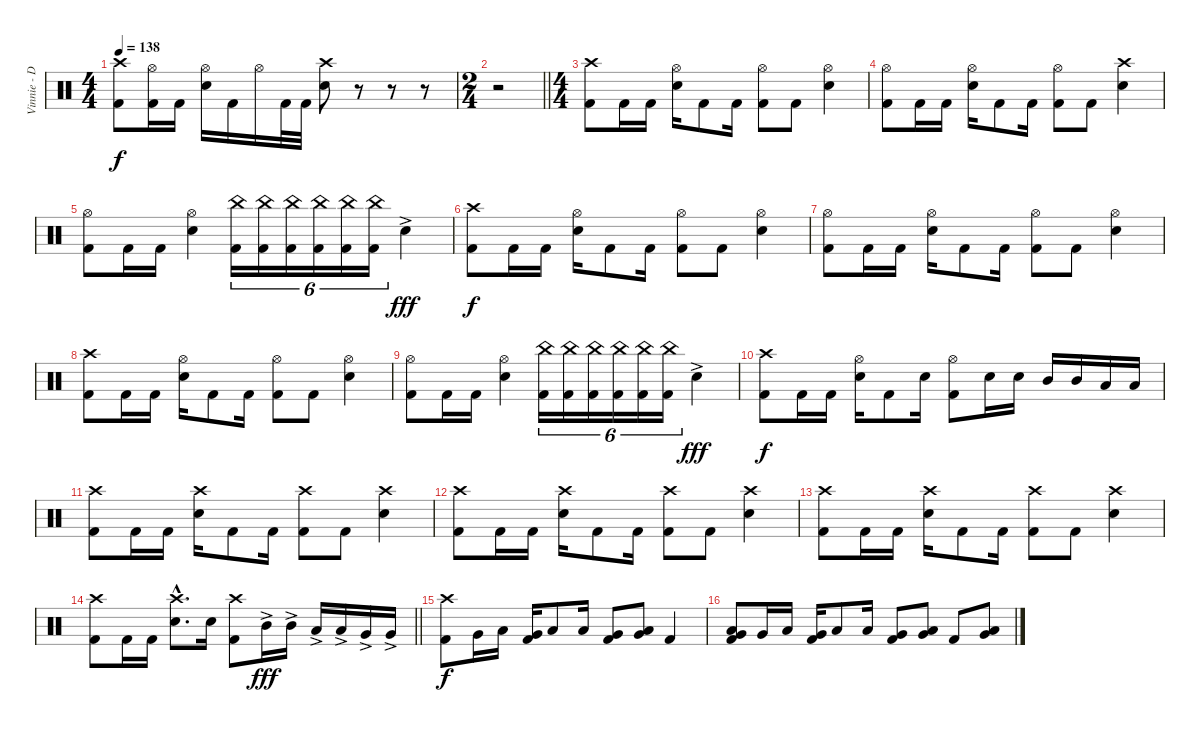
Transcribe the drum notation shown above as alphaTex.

\track ("Vinnie - Drums" "Vinnie - D") {instrument percussion}
\staff {score}
\articulation defaults
\ts (4 4)
\tempo 138
\clef neutral
\ks c
("Crash high (hit)" "Kick (hit) 2").8{dy f} ("Hi-Hat (open)" "Kick (hit) 2").16 "Kick (hit) 2".16 ("Hi-Hat (open)" "Snare (hit) 2").16 "Kick (hit) 2".16 "Hi-Hat (open)".16 "Kick (hit) 2".32 "Kick (hit) 2".32 ("Crash high (hit)" "Snare (hit) 2").8 r.8{volume 0} r.8 r.8{volume 16} |
\ts (2 4)
\barLineRight lightlight
r.2 |
\ts (4 4)
("Crash high (hit)" "Kick (hit) 2").8 "Kick (hit) 2".16 "Kick (hit) 2".16 ("Hi-Hat (open)" "Snare (hit) 2").16 "Kick (hit) 2".8 "Kick (hit) 2".16 ("Hi-Hat (open)" "Kick (hit) 2").8 "Kick (hit) 2".8 ("Hi-Hat (open)" "Snare (hit) 2").4 |
("Hi-Hat (open)" "Kick (hit) 2").8 "Kick (hit) 2".16 "Kick (hit) 2".16 ("Hi-Hat (open)" "Snare (hit) 2").16 "Kick (hit) 2".8 "Kick (hit) 2".16 ("Hi-Hat (open)" "Kick (hit) 2").8 "Kick (hit) 2".8 ("Crash high (hit)" "Snare (hit) 2").4 |
("Hi-Hat (open)" "Kick (hit) 2").8 "Kick (hit) 2".16 "Kick (hit) 2".16 ("Hi-Hat (open)" "Snare (hit) 2").4 ("China (hit)" "Kick (hit) 2").16{tu (6 4)} ("China (hit)" "Kick (hit) 2").16{tu (6 4)} ("China (hit)" "Kick (hit) 2").16{tu (6 4)} ("China (hit)" "Kick (hit) 2").16{tu (6 4)} ("China (hit)" "Kick (hit) 2").16{tu (6 4)} ("China (hit)" "Kick (hit) 2").16{tu (6 4)} "Snare (hit) 2"{ac}.4{dy fff} |
("Crash high (hit)" "Kick (hit) 2").8{dy f} "Kick (hit) 2".16 "Kick (hit) 2".16 ("Hi-Hat (open)" "Snare (hit) 2").16 "Kick (hit) 2".8 "Kick (hit) 2".16 ("Hi-Hat (open)" "Kick (hit) 2").8 "Kick (hit) 2".8 ("Hi-Hat (open)" "Snare (hit) 2").4 |
("Hi-Hat (open)" "Kick (hit) 2").8 "Kick (hit) 2".16 "Kick (hit) 2".16 ("Hi-Hat (open)" "Snare (hit) 2").16 "Kick (hit) 2".8 "Kick (hit) 2".16 ("Hi-Hat (open)" "Kick (hit) 2").8 "Kick (hit) 2".8 ("Hi-Hat (open)" "Snare (hit) 2").4 |
("Crash high (hit)" "Kick (hit) 2").8 "Kick (hit) 2".16 "Kick (hit) 2".16 ("Hi-Hat (open)" "Snare (hit) 2").16 "Kick (hit) 2".8 "Kick (hit) 2".16 ("Hi-Hat (open)" "Kick (hit) 2").8 "Kick (hit) 2".8 ("Hi-Hat (open)" "Snare (hit) 2").4 |
("Hi-Hat (open)" "Kick (hit) 2").8 "Kick (hit) 2".16 "Kick (hit) 2".16 ("Hi-Hat (open)" "Snare (hit) 2").4 ("China (hit)" "Kick (hit) 2").16{tu (6 4)} ("China (hit)" "Kick (hit) 2").16{tu (6 4)} ("China (hit)" "Kick (hit) 2").16{tu (6 4)} ("China (hit)" "Kick (hit) 2").16{tu (6 4)} ("China (hit)" "Kick (hit) 2").16{tu (6 4)} ("China (hit)" "Kick (hit) 2").16{tu (6 4)} "Snare (hit) 2"{ac}.4{dy fff} |
("Crash high (hit)" "Kick (hit) 2").8{dy f} "Kick (hit) 2".16 "Kick (hit) 2".16 ("Hi-Hat (open)" "Snare (hit) 2").16 "Kick (hit) 2".8 "Snare (hit) 2".16 ("Hi-Hat (open)" "Kick (hit) 2").8 "Snare (hit) 2".16 "Snare (hit) 2".16 "Mid Tom (hit)".16 "Mid Tom (hit)".16 "Low Tom (hit)".16 "Low Tom (hit)".16 |
("Crash high (hit)" "Kick (hit) 2").8 "Kick (hit) 2".16 "Kick (hit) 2".16 ("Crash high (hit)" "Snare (hit) 2").16 "Kick (hit) 2".8 "Kick (hit) 2".16 ("Crash high (hit)" "Kick (hit) 2").8 "Kick (hit) 2".8 ("Crash high (hit)" "Snare (hit) 2").4 |
("Crash high (hit)" "Kick (hit) 2").8 "Kick (hit) 2".16 "Kick (hit) 2".16 ("Crash high (hit)" "Snare (hit) 2").16 "Kick (hit) 2".8 "Kick (hit) 2".16 ("Crash high (hit)" "Kick (hit) 2").8 "Kick (hit) 2".8 ("Crash high (hit)" "Snare (hit) 2").4 |
("Crash high (hit)" "Kick (hit) 2").8 "Kick (hit) 2".16 "Kick (hit) 2".16 ("Crash high (hit)" "Snare (hit) 2").16 "Kick (hit) 2".8 "Kick (hit) 2".16 ("Crash high (hit)" "Kick (hit) 2").8 "Kick (hit) 2".8 ("Crash high (hit)" "Snare (hit) 2").4 |
\barLineRight lightlight
("Crash high (hit)" "Kick (hit) 2").8 "Kick (hit) 2".16 "Kick (hit) 2".16 ("Crash high (hit)"{hac} "Snare (hit) 2"{hac}).8{d} "Snare (hit) 2".16 ("Crash high (hit)" "Kick (hit) 2").8 "Mid Tom (hit)"{ac}.16{dy fff} "Mid Tom (hit)"{ac}.16 "Low Tom (hit)"{ac}.16 "Low Tom (hit)"{ac}.16 "Very Low Tom (hit)"{ac}.16 "Very Low Tom (hit)"{ac}.16 |
("Crash high (hit)" "Kick (hit) 2").8{dy f} "Very Low Tom (hit)".16 "Low Tom (hit)".16 ("Very Low Tom (hit)" "Kick (hit) 2").16 "Low Tom (hit)".8 "Low Tom (hit)".16 ("Very Low Tom (hit)" "Kick (hit) 2").8 ("Low Tom (hit)" "Very Low Tom (hit)").8 "Kick (hit) 2".4 |
("Low Tom (hit)" "Very Low Tom (hit)" "Kick (hit) 2").8 "Very Low Tom (hit)".16 "Low Tom (hit)".16 ("Very Low Tom (hit)" "Kick (hit) 2").16 "Low Tom (hit)".8 "Low Tom (hit)".16 ("Very Low Tom (hit)" "Kick (hit) 2").8 ("Low Tom (hit)" "Very Low Tom (hit)").8 "Kick (hit) 2".8 ("Low Tom (hit)" "Very Low Tom (hit)").8
